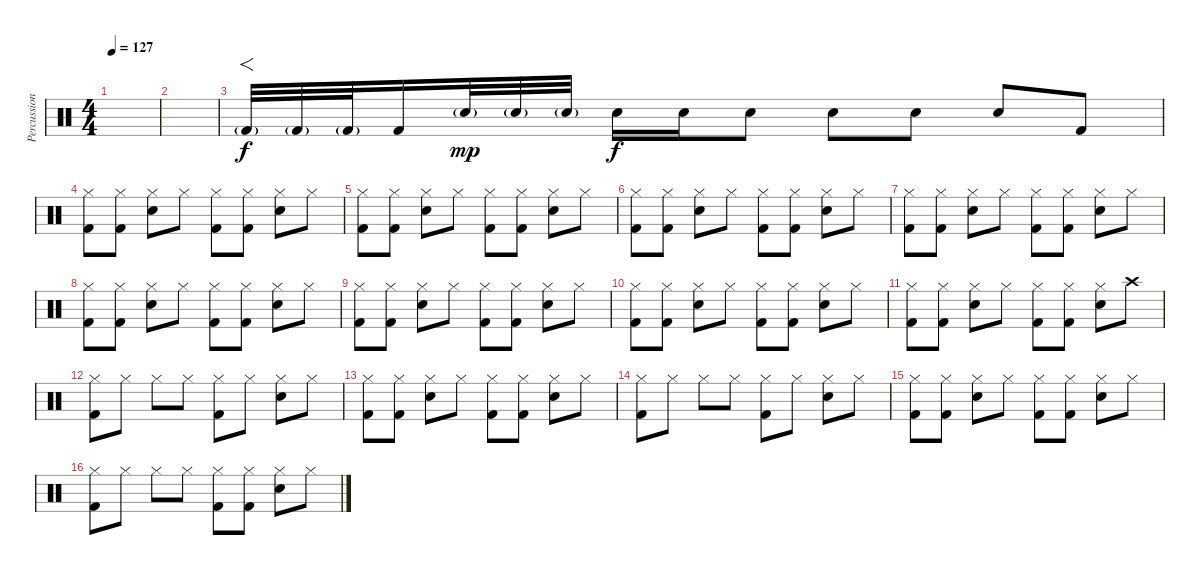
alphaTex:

\track ("Percussion" "Percussion") {instrument percussion}
\staff {score}
\articulation defaults
\ts (4 4)
\tempo 127
\clef neutral
\ks c
|
|
"Kick (hit) 2"{g}.32{f} "Kick (hit) 2"{g}.32 "Kick (hit) 2"{g}.32 "Kick (hit) 2".16{dy f} "Electric Snare (hit)"{g}.32{dy mp} "Electric Snare (hit)"{g}.32 "Electric Snare (hit)"{g}.32 "Electric Snare (hit)".16{dy f} "Electric Snare (hit)".16 "Electric Snare (hit)".8 "Electric Snare (hit)".8 "Electric Snare (hit)".8 "Electric Snare (hit)".8 "Kick (hit) 2".8 |
("Hi-Hat (closed)" "Kick (hit) 2").8 ("Hi-Hat (closed)" "Kick (hit) 2").8 ("Hi-Hat (closed)" "Electric Snare (hit)").8 "Hi-Hat (closed)".8 ("Hi-Hat (closed)" "Kick (hit) 2").8 ("Hi-Hat (closed)" "Kick (hit) 2").8 ("Hi-Hat (closed)" "Electric Snare (hit)").8 "Hi-Hat (closed)".8 |
("Hi-Hat (closed)" "Kick (hit) 2").8 ("Hi-Hat (closed)" "Kick (hit) 2").8 ("Hi-Hat (closed)" "Electric Snare (hit)").8 "Hi-Hat (closed)".8 ("Hi-Hat (closed)" "Kick (hit) 2").8 ("Hi-Hat (closed)" "Kick (hit) 2").8 ("Hi-Hat (closed)" "Electric Snare (hit)").8 "Hi-Hat (closed)".8 |
("Hi-Hat (closed)" "Kick (hit) 2").8 ("Hi-Hat (closed)" "Kick (hit) 2").8 ("Hi-Hat (closed)" "Electric Snare (hit)").8 "Hi-Hat (closed)".8 ("Hi-Hat (closed)" "Kick (hit) 2").8 ("Hi-Hat (closed)" "Kick (hit) 2").8 ("Hi-Hat (closed)" "Electric Snare (hit)").8 "Hi-Hat (closed)".8 |
("Hi-Hat (closed)" "Kick (hit) 2").8 ("Hi-Hat (closed)" "Kick (hit) 2").8 ("Hi-Hat (closed)" "Electric Snare (hit)").8 "Hi-Hat (closed)".8 ("Hi-Hat (closed)" "Kick (hit) 2").8 ("Hi-Hat (closed)" "Kick (hit) 2").8 ("Hi-Hat (closed)" "Electric Snare (hit)").8 "Hi-Hat (closed)".8 |
("Hi-Hat (closed)" "Kick (hit) 2").8 ("Hi-Hat (closed)" "Kick (hit) 2").8 ("Hi-Hat (closed)" "Electric Snare (hit)").8 "Hi-Hat (closed)".8 ("Hi-Hat (closed)" "Kick (hit) 2").8 ("Hi-Hat (closed)" "Kick (hit) 2").8 ("Hi-Hat (closed)" "Electric Snare (hit)").8 "Hi-Hat (closed)".8 |
("Hi-Hat (closed)" "Kick (hit) 2").8 ("Hi-Hat (closed)" "Kick (hit) 2").8 ("Hi-Hat (closed)" "Electric Snare (hit)").8 "Hi-Hat (closed)".8 ("Hi-Hat (closed)" "Kick (hit) 2").8 ("Hi-Hat (closed)" "Kick (hit) 2").8 ("Hi-Hat (closed)" "Electric Snare (hit)").8 "Hi-Hat (closed)".8 |
("Hi-Hat (closed)" "Kick (hit) 2").8 ("Hi-Hat (closed)" "Kick (hit) 2").8 ("Hi-Hat (closed)" "Electric Snare (hit)").8 "Hi-Hat (closed)".8 ("Hi-Hat (closed)" "Kick (hit) 2").8 ("Hi-Hat (closed)" "Kick (hit) 2").8 ("Hi-Hat (closed)" "Electric Snare (hit)").8 "Hi-Hat (closed)".8 |
("Hi-Hat (closed)" "Kick (hit) 2").8 ("Hi-Hat (closed)" "Kick (hit) 2").8 ("Hi-Hat (closed)" "Electric Snare (hit)").8 "Hi-Hat (closed)".8 ("Hi-Hat (closed)" "Kick (hit) 2").8 ("Hi-Hat (closed)" "Kick (hit) 2").8 ("Hi-Hat (closed)" "Electric Snare (hit)").8 "Crash high (hit)".8 |
("Hi-Hat (closed)" "Kick (hit) 2").8 "Hi-Hat (closed)".8 "Hi-Hat (closed)".8 "Hi-Hat (closed)".8 ("Hi-Hat (closed)" "Kick (hit) 2").8 "Hi-Hat (closed)".8 ("Hi-Hat (closed)" "Electric Snare (hit)").8 "Hi-Hat (closed)".8 |
("Hi-Hat (closed)" "Kick (hit) 2").8 ("Hi-Hat (closed)" "Kick (hit) 2").8 ("Hi-Hat (closed)" "Electric Snare (hit)").8 "Hi-Hat (closed)".8 ("Hi-Hat (closed)" "Kick (hit) 2").8 ("Hi-Hat (closed)" "Kick (hit) 2").8 ("Hi-Hat (closed)" "Electric Snare (hit)").8 "Hi-Hat (closed)".8 |
("Hi-Hat (closed)" "Kick (hit) 2").8 "Hi-Hat (closed)".8 "Hi-Hat (closed)".8 "Hi-Hat (closed)".8 ("Hi-Hat (closed)" "Kick (hit) 2").8 "Hi-Hat (closed)".8 ("Hi-Hat (closed)" "Electric Snare (hit)").8 "Hi-Hat (closed)".8 |
("Hi-Hat (closed)" "Kick (hit) 2").8 ("Hi-Hat (closed)" "Kick (hit) 2").8 ("Hi-Hat (closed)" "Electric Snare (hit)").8 "Hi-Hat (closed)".8 ("Hi-Hat (closed)" "Kick (hit) 2").8 ("Hi-Hat (closed)" "Kick (hit) 2").8 ("Hi-Hat (closed)" "Electric Snare (hit)").8 "Hi-Hat (closed)".8 |
("Hi-Hat (closed)" "Kick (hit) 2").8 "Hi-Hat (closed)".8 "Hi-Hat (closed)".8 "Hi-Hat (closed)".8 ("Hi-Hat (closed)" "Kick (hit) 2").8 ("Hi-Hat (closed)" "Kick (hit) 2").8 ("Hi-Hat (closed)" "Electric Snare (hit)").8 "Hi-Hat (closed)".8
